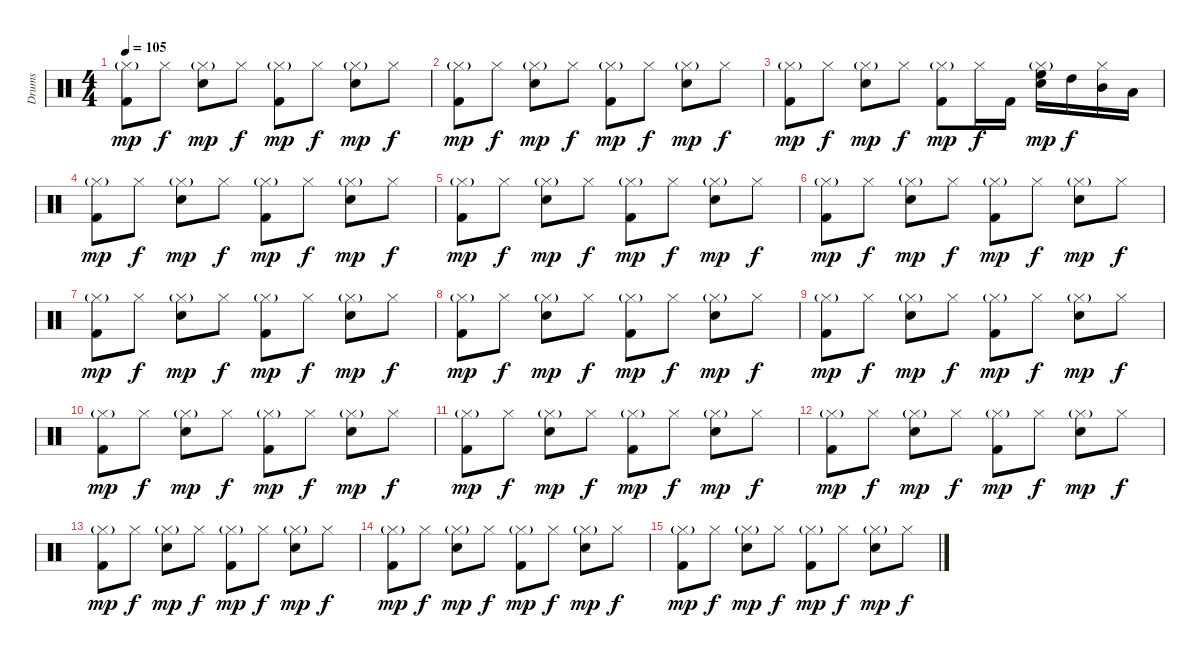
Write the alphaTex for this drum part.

\track ("Drums" "Drums") {instrument percussion}
\staff {score}
\articulation defaults
\ts (4 4)
\tempo 105
\clef neutral
\ks c
("Hi-Hat (closed)"{g} "Kick (hit) 2").8{dy mp} "Hi-Hat (closed)".8{dy f} ("Hi-Hat (closed)"{g} "Snare (hit) 2").8{dy mp} "Hi-Hat (closed)".8{dy f} ("Hi-Hat (closed)"{g} "Kick (hit) 2").8{dy mp} "Hi-Hat (closed)".8{dy f} ("Hi-Hat (closed)"{g} "Snare (hit) 2").8{dy mp} "Hi-Hat (closed)".8{dy f} |
("Hi-Hat (closed)"{g} "Kick (hit) 2").8{dy mp} "Hi-Hat (closed)".8{dy f} ("Hi-Hat (closed)"{g} "Snare (hit) 2").8{dy mp} "Hi-Hat (closed)".8{dy f} ("Hi-Hat (closed)"{g} "Kick (hit) 2").8{dy mp} "Hi-Hat (closed)".8{dy f} ("Hi-Hat (closed)"{g} "Snare (hit) 2").8{dy mp} "Hi-Hat (closed)".8{dy f} |
("Hi-Hat (closed)"{g} "Kick (hit) 2").8{dy mp} "Hi-Hat (closed)".8{dy f} ("Hi-Hat (closed)"{g} "Snare (hit) 2").8{dy mp} "Hi-Hat (closed)".8{dy f} ("Hi-Hat (closed)"{g} "Kick (hit) 2").8{dy mp} "Hi-Hat (closed)".16{dy f} "Kick (hit) 2".16 ("Hi-Hat (closed)"{g} "High Floor Tom (hit)" "Snare (hit) 2").16{dy mp} "High Tom (hit)".16{dy f} ("Hi-Hat (closed)" "Mid Tom (hit)").16 "Low Tom (hit)".16 |
("Hi-Hat (closed)"{g} "Kick (hit) 2").8{dy mp} "Hi-Hat (closed)".8{dy f} ("Hi-Hat (closed)"{g} "Snare (hit) 2").8{dy mp} "Hi-Hat (closed)".8{dy f} ("Hi-Hat (closed)"{g} "Kick (hit) 2").8{dy mp} "Hi-Hat (closed)".8{dy f} ("Hi-Hat (closed)"{g} "Snare (hit) 2").8{dy mp} "Hi-Hat (closed)".8{dy f} |
("Hi-Hat (closed)"{g} "Kick (hit) 2").8{dy mp} "Hi-Hat (closed)".8{dy f} ("Hi-Hat (closed)"{g} "Snare (hit) 2").8{dy mp} "Hi-Hat (closed)".8{dy f} ("Hi-Hat (closed)"{g} "Kick (hit) 2").8{dy mp} "Hi-Hat (closed)".8{dy f} ("Hi-Hat (closed)"{g} "Snare (hit) 2").8{dy mp} "Hi-Hat (closed)".8{dy f} |
("Hi-Hat (closed)"{g} "Kick (hit) 2").8{dy mp} "Hi-Hat (closed)".8{dy f} ("Hi-Hat (closed)"{g} "Snare (hit) 2").8{dy mp} "Hi-Hat (closed)".8{dy f} ("Hi-Hat (closed)"{g} "Kick (hit) 2").8{dy mp} "Hi-Hat (closed)".8{dy f} ("Hi-Hat (closed)"{g} "Snare (hit) 2").8{dy mp} "Hi-Hat (closed)".8{dy f} |
("Hi-Hat (closed)"{g} "Kick (hit) 2").8{dy mp} "Hi-Hat (closed)".8{dy f} ("Hi-Hat (closed)"{g} "Snare (hit) 2").8{dy mp} "Hi-Hat (closed)".8{dy f} ("Hi-Hat (closed)"{g} "Kick (hit) 2").8{dy mp} "Hi-Hat (closed)".8{dy f} ("Hi-Hat (closed)"{g} "Snare (hit) 2").8{dy mp} "Hi-Hat (closed)".8{dy f} |
("Hi-Hat (closed)"{g} "Kick (hit) 2").8{dy mp} "Hi-Hat (closed)".8{dy f} ("Hi-Hat (closed)"{g} "Snare (hit) 2").8{dy mp} "Hi-Hat (closed)".8{dy f} ("Hi-Hat (closed)"{g} "Kick (hit) 2").8{dy mp} "Hi-Hat (closed)".8{dy f} ("Hi-Hat (closed)"{g} "Snare (hit) 2").8{dy mp} "Hi-Hat (closed)".8{dy f} |
("Hi-Hat (closed)"{g} "Kick (hit) 2").8{dy mp} "Hi-Hat (closed)".8{dy f} ("Hi-Hat (closed)"{g} "Snare (hit) 2").8{dy mp} "Hi-Hat (closed)".8{dy f} ("Hi-Hat (closed)"{g} "Kick (hit) 2").8{dy mp} "Hi-Hat (closed)".8{dy f} ("Hi-Hat (closed)"{g} "Snare (hit) 2").8{dy mp} "Hi-Hat (closed)".8{dy f} |
("Hi-Hat (closed)"{g} "Kick (hit) 2").8{dy mp} "Hi-Hat (closed)".8{dy f} ("Hi-Hat (closed)"{g} "Snare (hit) 2").8{dy mp} "Hi-Hat (closed)".8{dy f} ("Hi-Hat (closed)"{g} "Kick (hit) 2").8{dy mp} "Hi-Hat (closed)".8{dy f} ("Hi-Hat (closed)"{g} "Snare (hit) 2").8{dy mp} "Hi-Hat (closed)".8{dy f} |
("Hi-Hat (closed)"{g} "Kick (hit) 2").8{dy mp} "Hi-Hat (closed)".8{dy f} ("Hi-Hat (closed)"{g} "Snare (hit) 2").8{dy mp} "Hi-Hat (closed)".8{dy f} ("Hi-Hat (closed)"{g} "Kick (hit) 2").8{dy mp} "Hi-Hat (closed)".8{dy f} ("Hi-Hat (closed)"{g} "Snare (hit) 2").8{dy mp} "Hi-Hat (closed)".8{dy f} |
("Hi-Hat (closed)"{g} "Kick (hit) 2").8{dy mp} "Hi-Hat (closed)".8{dy f} ("Hi-Hat (closed)"{g} "Snare (hit) 2").8{dy mp} "Hi-Hat (closed)".8{dy f} ("Hi-Hat (closed)"{g} "Kick (hit) 2").8{dy mp} "Hi-Hat (closed)".8{dy f} ("Hi-Hat (closed)"{g} "Snare (hit) 2").8{dy mp} "Hi-Hat (closed)".8{dy f} |
("Hi-Hat (closed)"{g} "Kick (hit) 2").8{dy mp} "Hi-Hat (closed)".8{dy f} ("Hi-Hat (closed)"{g} "Snare (hit) 2").8{dy mp} "Hi-Hat (closed)".8{dy f} ("Hi-Hat (closed)"{g} "Kick (hit) 2").8{dy mp} "Hi-Hat (closed)".8{dy f} ("Hi-Hat (closed)"{g} "Snare (hit) 2").8{dy mp} "Hi-Hat (closed)".8{dy f} |
("Hi-Hat (closed)"{g} "Kick (hit) 2").8{dy mp} "Hi-Hat (closed)".8{dy f} ("Hi-Hat (closed)"{g} "Snare (hit) 2").8{dy mp} "Hi-Hat (closed)".8{dy f} ("Hi-Hat (closed)"{g} "Kick (hit) 2").8{dy mp} "Hi-Hat (closed)".8{dy f} ("Hi-Hat (closed)"{g} "Snare (hit) 2").8{dy mp} "Hi-Hat (closed)".8{dy f} |
("Hi-Hat (closed)"{g} "Kick (hit) 2").8{dy mp} "Hi-Hat (closed)".8{dy f} ("Hi-Hat (closed)"{g} "Snare (hit) 2").8{dy mp} "Hi-Hat (closed)".8{dy f} ("Hi-Hat (closed)"{g} "Kick (hit) 2").8{dy mp} "Hi-Hat (closed)".8{dy f} ("Hi-Hat (closed)"{g} "Snare (hit) 2").8{dy mp} "Hi-Hat (closed)".8{dy f}
